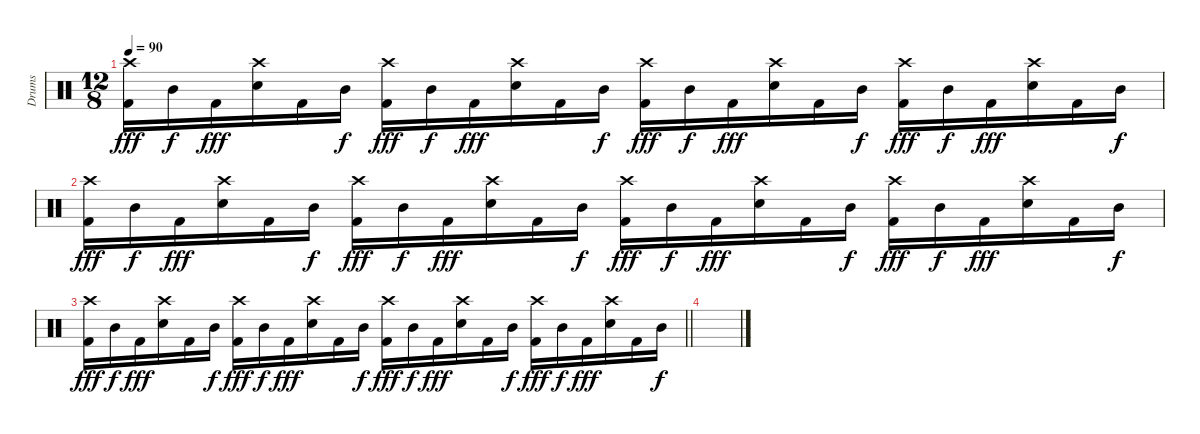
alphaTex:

\track ("Drums" "Drums") {instrument percussion}
\staff {score}
\articulation defaults
\ts (12 8)
\tempo 90
\clef neutral
\ks c
("Crash high (hit)" "Kick (hit) 2").16{dy fff} "Mid Tom (hit)".16{dy f} "Kick (hit) 2".16{dy fff} ("Crash high (hit)" "Electric Snare (hit)").16 "Kick (hit) 2".16 "Mid Tom (hit)".16{dy f} ("Crash high (hit)" "Kick (hit) 2").16{dy fff} "Mid Tom (hit)".16{dy f} "Kick (hit) 2".16{dy fff} ("Crash high (hit)" "Electric Snare (hit)").16 "Kick (hit) 2".16 "Mid Tom (hit)".16{dy f} ("Crash high (hit)" "Kick (hit) 2").16{dy fff} "Mid Tom (hit)".16{dy f} "Kick (hit) 2".16{dy fff} ("Crash high (hit)" "Electric Snare (hit)").16 "Kick (hit) 2".16 "Mid Tom (hit)".16{dy f} ("Crash high (hit)" "Kick (hit) 2").16{dy fff} "Mid Tom (hit)".16{dy f} "Kick (hit) 2".16{dy fff} ("Crash high (hit)" "Electric Snare (hit)").16 "Kick (hit) 2".16 "Mid Tom (hit)".16{dy f} |
("Crash high (hit)" "Kick (hit) 2").16{dy fff} "Mid Tom (hit)".16{dy f} "Kick (hit) 2".16{dy fff} ("Crash high (hit)" "Electric Snare (hit)").16 "Kick (hit) 2".16 "Mid Tom (hit)".16{dy f} ("Crash high (hit)" "Kick (hit) 2").16{dy fff} "Mid Tom (hit)".16{dy f} "Kick (hit) 2".16{dy fff} ("Crash high (hit)" "Electric Snare (hit)").16 "Kick (hit) 2".16 "Mid Tom (hit)".16{dy f} ("Crash high (hit)" "Kick (hit) 2").16{dy fff} "Mid Tom (hit)".16{dy f} "Kick (hit) 2".16{dy fff} ("Crash high (hit)" "Electric Snare (hit)").16 "Kick (hit) 2".16 "Mid Tom (hit)".16{dy f} ("Crash high (hit)" "Kick (hit) 2").16{dy fff} "Mid Tom (hit)".16{dy f} "Kick (hit) 2".16{dy fff} ("Crash high (hit)" "Electric Snare (hit)").16 "Kick (hit) 2".16 "Mid Tom (hit)".16{dy f} |
\barLineRight lightlight
("Crash high (hit)" "Kick (hit) 2").16{dy fff} "Mid Tom (hit)".16{dy f} "Kick (hit) 2".16{dy fff} ("Crash high (hit)" "Electric Snare (hit)").16 "Kick (hit) 2".16 "Mid Tom (hit)".16{dy f} ("Crash high (hit)" "Kick (hit) 2").16{dy fff} "Mid Tom (hit)".16{dy f} "Kick (hit) 2".16{dy fff} ("Crash high (hit)" "Electric Snare (hit)").16 "Kick (hit) 2".16 "Mid Tom (hit)".16{dy f} ("Crash high (hit)" "Kick (hit) 2").16{dy fff} "Mid Tom (hit)".16{dy f} "Kick (hit) 2".16{dy fff} ("Crash high (hit)" "Electric Snare (hit)").16 "Kick (hit) 2".16 "Mid Tom (hit)".16{dy f} ("Crash high (hit)" "Kick (hit) 2").16{dy fff} "Mid Tom (hit)".16{dy f} "Kick (hit) 2".16{dy fff} ("Crash high (hit)" "Electric Snare (hit)").16 "Kick (hit) 2".16 "Mid Tom (hit)".16{dy f} |
\section ("" "")
